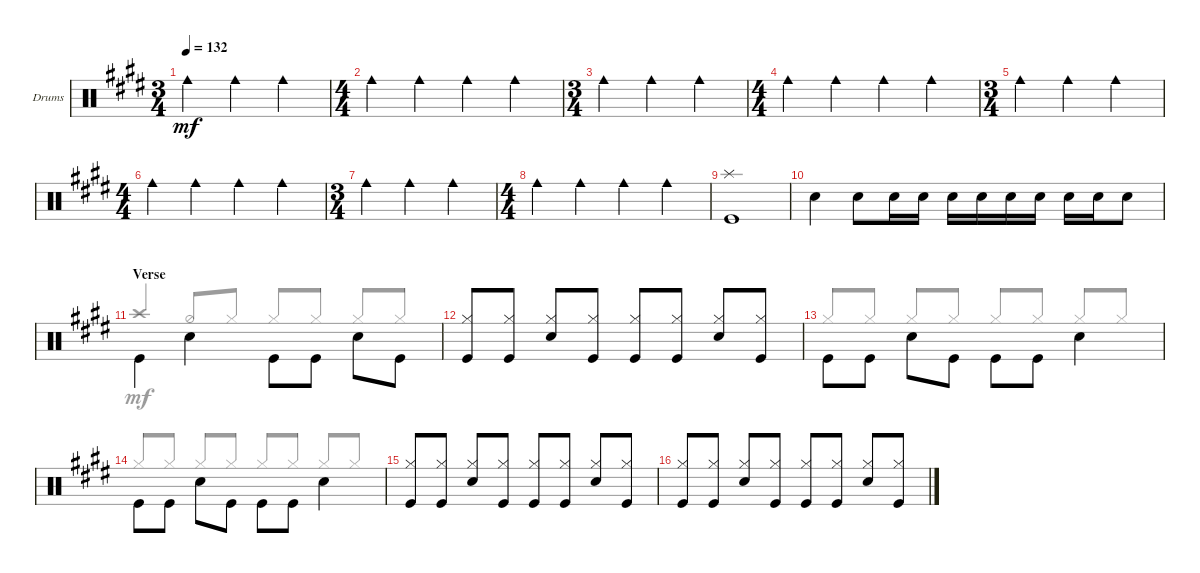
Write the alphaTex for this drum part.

\defaultSystemsLayout 4
\bracketExtendMode groupsimilarinstruments
\firstSystemTrackNameOrientation horizontal
\otherSystemsTrackNameOrientation horizontal
\track ("PETER CRISS" "Drums") {solo instrument percussion}
\staff {score}
\articulation defaults
\voice
\ts (3 4)
\tempo 132
\clef neutral
\scale
0.333333
\ks e "Cowbell medium (hit)".4{dy mf} "Cowbell medium (hit)".4 "Cowbell medium (hit)".4
|
\ts (4 4)
\scale
0.333333 "Cowbell medium (hit)".4 "Cowbell medium (hit)".4 "Cowbell medium (hit)".4 "Cowbell medium (hit)".4 |
\ts (3 4)
\scale
0.333333 "Cowbell medium (hit)".4 "Cowbell medium (hit)".4 "Cowbell medium (hit)".4 |
\ts (4 4)
\scale
0.333333 "Cowbell medium (hit)".4 "Cowbell medium (hit)".4 "Cowbell medium (hit)".4 "Cowbell medium (hit)".4 |
\ts (3 4)
\scale
0.333333 "Cowbell medium (hit)".4 "Cowbell medium (hit)".4 "Cowbell medium (hit)".4 |
\ts (4 4)
\scale
0.333333 "Cowbell medium (hit)".4 "Cowbell medium (hit)".4 "Cowbell medium (hit)".4 "Cowbell medium (hit)".4 |
\ts (3 4)
"Cowbell medium (hit)".4 "Cowbell medium (hit)".4 "Cowbell medium (hit)".4 |
\ts (4 4)
"Cowbell medium (hit)".4 "Cowbell medium (hit)".4 "Cowbell medium (hit)".4 "Cowbell medium (hit)".4 |
("Kick (hit)" "Splash (hit)").1 |
"Snare (hit) 2".4 "Snare (hit) 2".8 "Snare (hit) 2".16 "Snare (hit) 2".16 "Snare (hit) 2".16 "Snare (hit) 2".16 "Snare (hit) 2".16 "Snare (hit) 2".16 "Snare (hit) 2".16 "Snare (hit) 2".16 "Snare (hit) 2".8 |
\section ("" "Verse")
"Kick (hit)".4{beam invert} "Snare (hit) 2".4{beam invert} "Kick (hit)".8{beam invert} "Kick (hit)".8 "Snare (hit) 2".8{beam invert} "Kick (hit)".8 |
("Kick (hit)" "Hi-Hat (closed)").8{beam invert} ("Kick (hit)" "Hi-Hat (closed)").8 ("Snare (hit) 2" "Hi-Hat (closed)").8{beam invert} ("Kick (hit)" "Hi-Hat (closed)").8 ("Kick (hit)" "Hi-Hat (closed)").8{beam invert} ("Kick (hit)" "Hi-Hat (closed)").8 ("Snare (hit) 2" "Hi-Hat (closed)").8{beam invert} ("Kick (hit)" "Hi-Hat (closed)").8 |
"Kick (hit)".8{beam invert} "Kick (hit)".8 "Snare (hit) 2".8{beam invert} "Kick (hit)".8 "Kick (hit)".8{beam invert} "Kick (hit)".8 "Snare (hit) 2".4{beam invert} |
"Kick (hit)".8{beam invert} "Kick (hit)".8 "Snare (hit) 2".8{beam invert} "Kick (hit)".8 "Kick (hit)".8{beam invert} "Kick (hit)".8 "Snare (hit) 2".4{beam invert} |
("Kick (hit)" "Hi-Hat (closed)").8{beam invert} ("Kick (hit)" "Hi-Hat (closed)").8 ("Snare (hit) 2" "Hi-Hat (closed)").8{beam invert} ("Kick (hit)" "Hi-Hat (closed)").8 ("Kick (hit)" "Hi-Hat (closed)").8{beam invert} ("Kick (hit)" "Hi-Hat (closed)").8 ("Snare (hit) 2" "Hi-Hat (closed)").8{beam invert} ("Kick (hit)" "Hi-Hat (closed)").8 |
("Kick (hit)" "Hi-Hat (closed)").8{beam invert} ("Kick (hit)" "Hi-Hat (closed)").8 ("Snare (hit) 2" "Hi-Hat (closed)").8{beam invert} ("Kick (hit)" "Hi-Hat (closed)").8 ("Kick (hit)" "Hi-Hat (closed)").8{beam invert} ("Kick (hit)" "Hi-Hat (closed)").8 ("Snare (hit) 2" "Hi-Hat (closed)").8{beam invert} ("Kick (hit)" "Hi-Hat (closed)").8
\voice
\clef neutral
\ottava regular
\simile none
\scale
0.333333
\ks e
|
\scale
0.333333 |
\scale
0.333333 |
\scale
0.333333 |
\scale
0.333333 |
\scale
0.333333 |
|
|
|
|
"Crash high (hit)".4{beam invert} "Hi-Hat (half)".8{beam invert} "Hi-Hat (closed)".8 "Hi-Hat (closed)".8{beam invert} "Hi-Hat (closed)".8 "Hi-Hat (closed)".8{beam invert} "Hi-Hat (closed)".8 |
|
"Hi-Hat (closed)".8{beam invert} "Hi-Hat (closed)".8 "Hi-Hat (closed)".8{beam invert} "Hi-Hat (closed)".8 "Hi-Hat (closed)".8{beam invert} "Hi-Hat (closed)".8 "Hi-Hat (closed)".8{beam invert} "Hi-Hat (closed)".8 |
"Hi-Hat (closed)".8{beam invert} "Hi-Hat (closed)".8 "Hi-Hat (closed)".8{beam invert} "Hi-Hat (closed)".8 "Hi-Hat (closed)".8{beam invert} "Hi-Hat (closed)".8 "Hi-Hat (closed)".8{beam invert} "Hi-Hat (closed)".8 |
|
